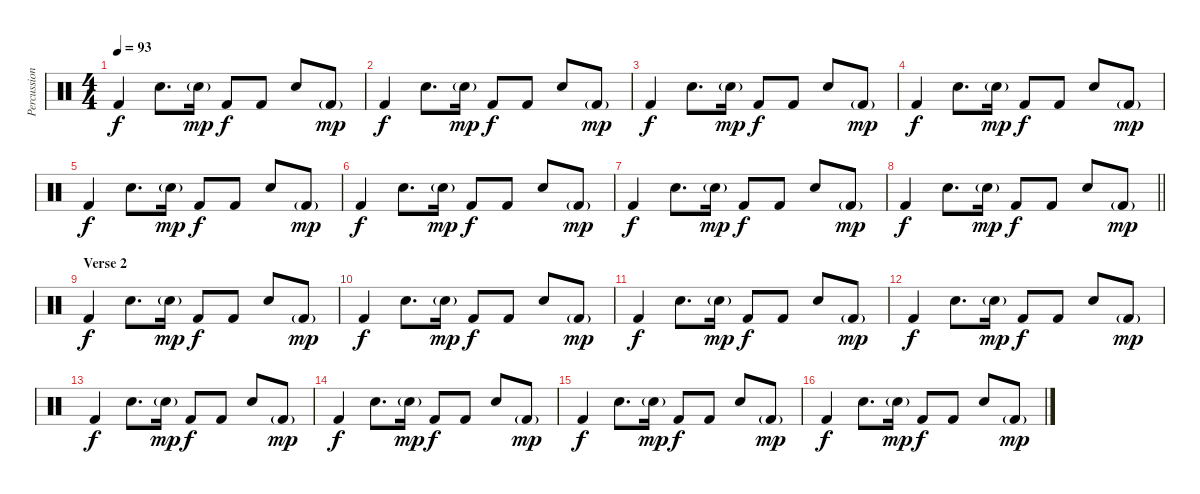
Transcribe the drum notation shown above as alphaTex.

\track ("Percussion" "Percussion") {instrument percussion}
\staff {score}
\articulation defaults
\ts (4 4)
\tempo 93
\clef neutral
\ks c "Kick (hit) 2".4{dy f} "Snare (hit) 2".8{d} "Snare (hit) 2"{g}.16{dy mp} "Kick (hit) 2".8{dy f} "Kick (hit) 2".8 "Snare (hit) 2".8 "Kick (hit) 2"{g}.8{dy mp}
|
"Kick (hit) 2".4{dy f} "Snare (hit) 2".8{d} "Snare (hit) 2"{g}.16{dy mp} "Kick (hit) 2".8{dy f} "Kick (hit) 2".8 "Snare (hit) 2".8 "Kick (hit) 2"{g}.8{dy mp} |
"Kick (hit) 2".4{dy f} "Snare (hit) 2".8{d} "Snare (hit) 2"{g}.16{dy mp} "Kick (hit) 2".8{dy f} "Kick (hit) 2".8 "Snare (hit) 2".8 "Kick (hit) 2"{g}.8{dy mp} |
"Kick (hit) 2".4{dy f} "Snare (hit) 2".8{d} "Snare (hit) 2"{g}.16{dy mp} "Kick (hit) 2".8{dy f} "Kick (hit) 2".8 "Snare (hit) 2".8 "Kick (hit) 2"{g}.8{dy mp} |
"Kick (hit) 2".4{dy f} "Snare (hit) 2".8{d} "Snare (hit) 2"{g}.16{dy mp} "Kick (hit) 2".8{dy f} "Kick (hit) 2".8 "Snare (hit) 2".8 "Kick (hit) 2"{g}.8{dy mp} |
"Kick (hit) 2".4{dy f} "Snare (hit) 2".8{d} "Snare (hit) 2"{g}.16{dy mp} "Kick (hit) 2".8{dy f} "Kick (hit) 2".8 "Snare (hit) 2".8 "Kick (hit) 2"{g}.8{dy mp} |
"Kick (hit) 2".4{dy f} "Snare (hit) 2".8{d} "Snare (hit) 2"{g}.16{dy mp} "Kick (hit) 2".8{dy f} "Kick (hit) 2".8 "Snare (hit) 2".8 "Kick (hit) 2"{g}.8{dy mp} |
\barLineRight lightlight "Kick (hit) 2".4{dy f} "Snare (hit) 2".8{d} "Snare (hit) 2"{g}.16{dy mp} "Kick (hit) 2".8{dy f} "Kick (hit) 2".8 "Snare (hit) 2".8 "Kick (hit) 2"{g}.8{dy mp}
|
\section ("" "Verse 2")
"Kick (hit) 2".4{dy f} "Snare (hit) 2".8{d} "Snare (hit) 2"{g}.16{dy mp} "Kick (hit) 2".8{dy f} "Kick (hit) 2".8 "Snare (hit) 2".8 "Kick (hit) 2"{g}.8{dy mp} |
"Kick (hit) 2".4{dy f} "Snare (hit) 2".8{d} "Snare (hit) 2"{g}.16{dy mp} "Kick (hit) 2".8{dy f} "Kick (hit) 2".8 "Snare (hit) 2".8 "Kick (hit) 2"{g}.8{dy mp} |
"Kick (hit) 2".4{dy f} "Snare (hit) 2".8{d} "Snare (hit) 2"{g}.16{dy mp} "Kick (hit) 2".8{dy f} "Kick (hit) 2".8 "Snare (hit) 2".8 "Kick (hit) 2"{g}.8{dy mp} |
"Kick (hit) 2".4{dy f} "Snare (hit) 2".8{d} "Snare (hit) 2"{g}.16{dy mp} "Kick (hit) 2".8{dy f} "Kick (hit) 2".8 "Snare (hit) 2".8 "Kick (hit) 2"{g}.8{dy mp} |
"Kick (hit) 2".4{dy f} "Snare (hit) 2".8{d} "Snare (hit) 2"{g}.16{dy mp} "Kick (hit) 2".8{dy f} "Kick (hit) 2".8 "Snare (hit) 2".8 "Kick (hit) 2"{g}.8{dy mp} |
"Kick (hit) 2".4{dy f} "Snare (hit) 2".8{d} "Snare (hit) 2"{g}.16{dy mp} "Kick (hit) 2".8{dy f} "Kick (hit) 2".8 "Snare (hit) 2".8 "Kick (hit) 2"{g}.8{dy mp} |
"Kick (hit) 2".4{dy f} "Snare (hit) 2".8{d} "Snare (hit) 2"{g}.16{dy mp} "Kick (hit) 2".8{dy f} "Kick (hit) 2".8 "Snare (hit) 2".8 "Kick (hit) 2"{g}.8{dy mp} |
"Kick (hit) 2".4{dy f} "Snare (hit) 2".8{d} "Snare (hit) 2"{g}.16{dy mp} "Kick (hit) 2".8{dy f} "Kick (hit) 2".8 "Snare (hit) 2".8 "Kick (hit) 2"{g}.8{dy mp}
